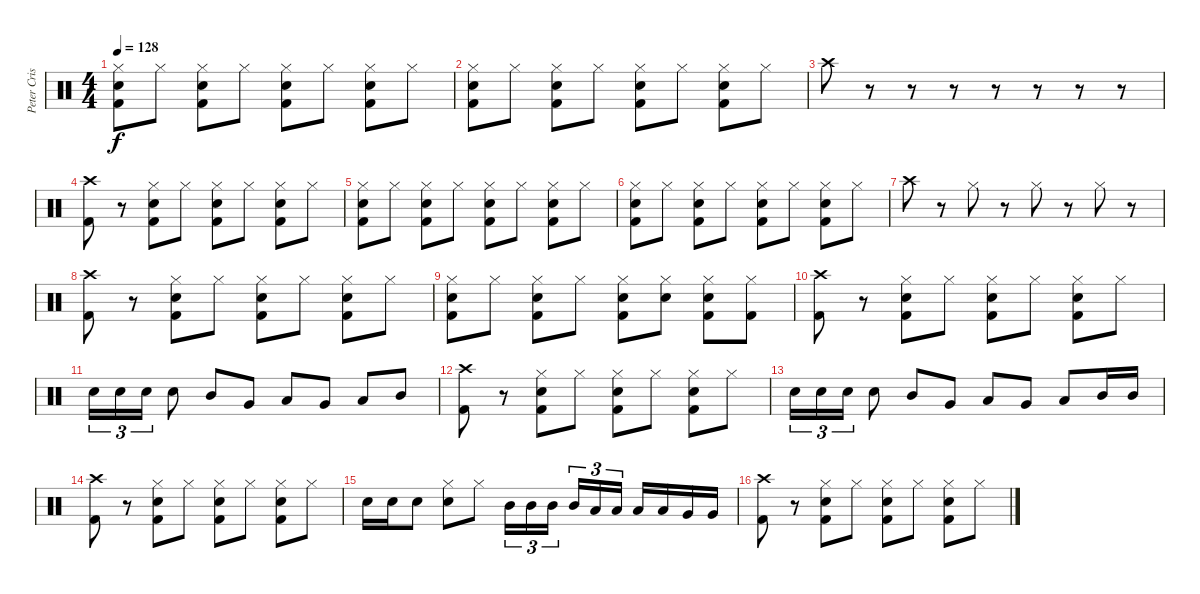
\track ("Peter Criss" "Peter Cris") {instrument percussion}
\staff {score}
\articulation defaults
\ts (4 4)
\tempo 128
\clef neutral
\ks c
("Hi-Hat (closed)" "Electric Snare (hit)" "Kick (hit) 2").8{dy f} "Hi-Hat (closed)".8 ("Hi-Hat (closed)" "Electric Snare (hit)" "Kick (hit) 2").8 "Hi-Hat (closed)".8 ("Hi-Hat (closed)" "Electric Snare (hit)" "Kick (hit) 2").8 "Hi-Hat (closed)".8 ("Hi-Hat (closed)" "Electric Snare (hit)" "Kick (hit) 2").8 "Hi-Hat (closed)".8 |
("Hi-Hat (closed)" "Electric Snare (hit)" "Kick (hit) 2").8 "Hi-Hat (closed)".8 ("Hi-Hat (closed)" "Electric Snare (hit)" "Kick (hit) 2").8 "Hi-Hat (closed)".8 ("Hi-Hat (closed)" "Electric Snare (hit)" "Kick (hit) 2").8 "Hi-Hat (closed)".8 ("Hi-Hat (closed)" "Electric Snare (hit)" "Kick (hit) 2").8 "Hi-Hat (closed)".8 |
"Crash high (hit)".8 r.8 r.8 r.8 r.8 r.8 r.8 r.8 |
("Crash high (hit)" "Kick (hit) 2").8 r.8 ("Hi-Hat (closed)" "Electric Snare (hit)" "Kick (hit) 2").8 "Hi-Hat (closed)".8 ("Hi-Hat (closed)" "Electric Snare (hit)" "Kick (hit) 2").8 "Hi-Hat (closed)".8 ("Hi-Hat (closed)" "Electric Snare (hit)" "Kick (hit) 2").8 "Hi-Hat (closed)".8 |
("Hi-Hat (closed)" "Electric Snare (hit)" "Kick (hit) 2").8 "Hi-Hat (closed)".8 ("Hi-Hat (closed)" "Electric Snare (hit)" "Kick (hit) 2").8 "Hi-Hat (closed)".8 ("Hi-Hat (closed)" "Electric Snare (hit)" "Kick (hit) 2").8 "Hi-Hat (closed)".8 ("Hi-Hat (closed)" "Electric Snare (hit)" "Kick (hit) 2").8 "Hi-Hat (closed)".8 |
("Hi-Hat (closed)" "Electric Snare (hit)" "Kick (hit) 2").8 "Hi-Hat (closed)".8 ("Hi-Hat (closed)" "Electric Snare (hit)" "Kick (hit) 2").8 "Hi-Hat (closed)".8 ("Hi-Hat (closed)" "Electric Snare (hit)" "Kick (hit) 2").8 "Hi-Hat (closed)".8 ("Hi-Hat (closed)" "Electric Snare (hit)" "Kick (hit) 2").8 "Hi-Hat (closed)".8 |
"Crash high (hit)".8 r.8 "Hi-Hat (closed)".8 r.8 "Hi-Hat (closed)".8 r.8 "Hi-Hat (closed)".8 r.8 |
("Crash high (hit)" "Kick (hit) 2").8 r.8 ("Hi-Hat (closed)" "Electric Snare (hit)" "Kick (hit) 2").8 "Hi-Hat (closed)".8 ("Hi-Hat (closed)" "Electric Snare (hit)" "Kick (hit) 2").8 "Hi-Hat (closed)".8 ("Hi-Hat (closed)" "Electric Snare (hit)" "Kick (hit) 2").8 "Hi-Hat (closed)".8 |
("Hi-Hat (closed)" "Electric Snare (hit)" "Kick (hit) 2").8 "Hi-Hat (closed)".8 ("Hi-Hat (closed)" "Electric Snare (hit)" "Kick (hit) 2").8 "Hi-Hat (closed)".8 ("Hi-Hat (closed)" "Electric Snare (hit)" "Kick (hit) 2").8 ("Hi-Hat (closed)" "Electric Snare (hit)").8 ("Hi-Hat (closed)" "Electric Snare (hit)" "Kick (hit) 2").8 ("Hi-Hat (closed)" "Kick (hit) 2").8 |
("Crash high (hit)" "Kick (hit) 2").8 r.8 ("Hi-Hat (closed)" "Electric Snare (hit)" "Kick (hit) 2").8 "Hi-Hat (closed)".8 ("Hi-Hat (closed)" "Electric Snare (hit)" "Kick (hit) 2").8 "Hi-Hat (closed)".8 ("Hi-Hat (closed)" "Electric Snare (hit)" "Kick (hit) 2").8 "Hi-Hat (closed)".8 |
"Electric Snare (hit)".16{tu (3 2)} "Electric Snare (hit)".16{tu (3 2)} "Electric Snare (hit)".16{tu (3 2)} "Electric Snare (hit)".8 "Mid Tom (hit)".8 "Very Low Tom (hit)".8 "Low Tom (hit)".8 "Very Low Tom (hit)".8 "Low Tom (hit)".8 "Mid Tom (hit)".8 |
("Crash high (hit)" "Kick (hit) 2").8 r.8 ("Hi-Hat (closed)" "Electric Snare (hit)" "Kick (hit) 2").8 "Hi-Hat (closed)".8 ("Hi-Hat (closed)" "Electric Snare (hit)" "Kick (hit) 2").8 "Hi-Hat (closed)".8 ("Hi-Hat (closed)" "Electric Snare (hit)" "Kick (hit) 2").8 "Hi-Hat (closed)".8 |
"Electric Snare (hit)".16{tu (3 2)} "Electric Snare (hit)".16{tu (3 2)} "Electric Snare (hit)".16{tu (3 2)} "Electric Snare (hit)".8 "Mid Tom (hit)".8 "Very Low Tom (hit)".8 "Low Tom (hit)".8 "Very Low Tom (hit)".8 "Low Tom (hit)".8 "Mid Tom (hit)".16 "Mid Tom (hit)".16 |
("Crash high (hit)" "Kick (hit) 2").8 r.8 ("Hi-Hat (closed)" "Electric Snare (hit)" "Kick (hit) 2").8 "Hi-Hat (closed)".8 ("Hi-Hat (closed)" "Electric Snare (hit)" "Kick (hit) 2").8 "Hi-Hat (closed)".8 ("Hi-Hat (closed)" "Electric Snare (hit)" "Kick (hit) 2").8 "Hi-Hat (closed)".8 |
"Electric Snare (hit)".16 "Electric Snare (hit)".16 "Electric Snare (hit)".8 ("Hi-Hat (closed)" "Electric Snare (hit)").8 "Hi-Hat (closed)".8 "Mid Tom (hit)".16{tu (3 2)} "Mid Tom (hit)".16{tu (3 2)} "Mid Tom (hit)".16{tu (3 2)} "Mid Tom (hit)".16{tu (3 2)} "Low Tom (hit)".16{tu (3 2)} "Low Tom (hit)".16{tu (3 2)} "Low Tom (hit)".16 "Low Tom (hit)".16 "Very Low Tom (hit)".16 "Very Low Tom (hit)".16 |
("Crash high (hit)" "Kick (hit) 2").8 r.8 ("Hi-Hat (closed)" "Electric Snare (hit)" "Kick (hit) 2").8 "Hi-Hat (closed)".8 ("Hi-Hat (closed)" "Electric Snare (hit)" "Kick (hit) 2").8 "Hi-Hat (closed)".8 ("Hi-Hat (closed)" "Electric Snare (hit)" "Kick (hit) 2").8 "Hi-Hat (closed)".8
